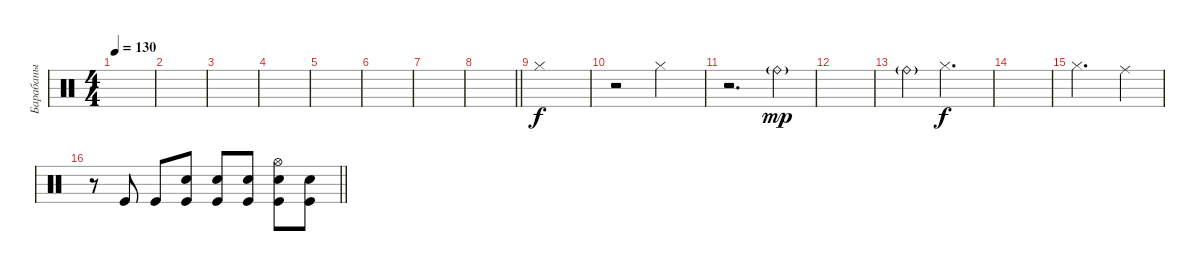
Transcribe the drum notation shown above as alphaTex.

\track ("Барабаны" "Барабаны") {instrument percussion}
\staff {score}
\articulation defaults
\ts (4 4)
\tempo 130
\clef neutral
\ks c
|
|
|
|
|
|
|
\barLineRight lightlight
|
"Hi-Hat (closed)".1 |
r.2 "Hi-Hat (closed)".2 |
r.2{d} "Ride (bell)"{g}.4{dy mp} |
|
"Ride (bell)"{g}.4 "Hi-Hat (closed)".2{d dy f} |
|
"Hi-Hat (closed)".2{d} "Ride (middle)".4 |
\barLineRight lightlight
r.8 "Kick (hit)".8 "Kick (hit)".8 ("Electric Snare (hit)" "Kick (hit)").8 ("Electric Snare (hit)" "Kick (hit)").8 ("Electric Snare (hit)" "Kick (hit)").8 ("Hi-Hat (open)" "Electric Snare (hit)" "Kick (hit)").8 ("Electric Snare (hit)" "Kick (hit)").8
